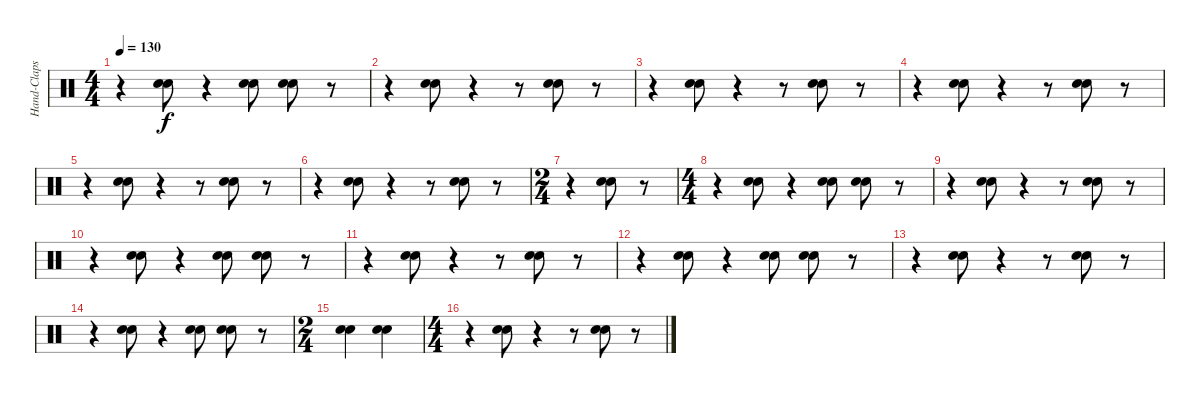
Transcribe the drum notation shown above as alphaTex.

\track ("Hand-Claps" "Hand-Claps") {instrument percussion}
\staff {score}
\articulation defaults
\ts (4 4)
\tempo 130
\clef neutral
\ks c
r.4{dy f} ("Hand Clap (hit)" "Hand Clap (hit)").8 r.4 ("Hand Clap (hit)" "Hand Clap (hit)").8 ("Hand Clap (hit)" "Hand Clap (hit)").8 r.8 |
r.4 ("Hand Clap (hit)" "Hand Clap (hit)").8 r.4 r.8 ("Hand Clap (hit)" "Hand Clap (hit)").8 r.8 |
r.4 ("Hand Clap (hit)" "Hand Clap (hit)").8 r.4 r.8 ("Hand Clap (hit)" "Hand Clap (hit)").8 r.8 |
r.4 ("Hand Clap (hit)" "Hand Clap (hit)").8 r.4 r.8 ("Hand Clap (hit)" "Hand Clap (hit)").8 r.8 |
r.4 ("Hand Clap (hit)" "Hand Clap (hit)").8 r.4 r.8 ("Hand Clap (hit)" "Hand Clap (hit)").8 r.8 |
r.4 ("Hand Clap (hit)" "Hand Clap (hit)").8 r.4 r.8 ("Hand Clap (hit)" "Hand Clap (hit)").8 r.8 |
\ts (2 4)
r.4 ("Hand Clap (hit)" "Hand Clap (hit)").8 r.8 |
\ts (4 4)
r.4 ("Hand Clap (hit)" "Hand Clap (hit)").8 r.4 ("Hand Clap (hit)" "Hand Clap (hit)").8 ("Hand Clap (hit)" "Hand Clap (hit)").8 r.8 |
r.4 ("Hand Clap (hit)" "Hand Clap (hit)").8 r.4 r.8 ("Hand Clap (hit)" "Hand Clap (hit)").8 r.8 |
r.4 ("Hand Clap (hit)" "Hand Clap (hit)").8 r.4 ("Hand Clap (hit)" "Hand Clap (hit)").8 ("Hand Clap (hit)" "Hand Clap (hit)").8 r.8 |
r.4 ("Hand Clap (hit)" "Hand Clap (hit)").8 r.4 r.8 ("Hand Clap (hit)" "Hand Clap (hit)").8 r.8 |
r.4 ("Hand Clap (hit)" "Hand Clap (hit)").8 r.4 ("Hand Clap (hit)" "Hand Clap (hit)").8 ("Hand Clap (hit)" "Hand Clap (hit)").8 r.8 |
r.4 ("Hand Clap (hit)" "Hand Clap (hit)").8 r.4 r.8 ("Hand Clap (hit)" "Hand Clap (hit)").8 r.8 |
r.4 ("Hand Clap (hit)" "Hand Clap (hit)").8 r.4 ("Hand Clap (hit)" "Hand Clap (hit)").8 ("Hand Clap (hit)" "Hand Clap (hit)").8 r.8 |
\ts (2 4)
("Hand Clap (hit)" "Hand Clap (hit)").4 ("Hand Clap (hit)" "Hand Clap (hit)").4 |
\ts (4 4)
r.4 ("Hand Clap (hit)" "Hand Clap (hit)").8 r.4 r.8 ("Hand Clap (hit)" "Hand Clap (hit)").8 r.8
